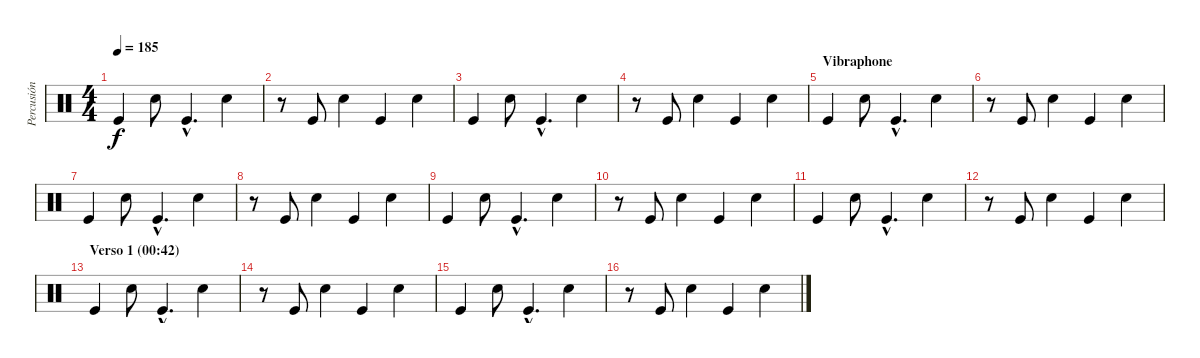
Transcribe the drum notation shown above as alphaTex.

\track ("Percusión" "Percusión") {instrument percussion}
\staff {score}
\articulation defaults
\ts (4 4)
\tempo 185
\clef neutral
\ks c "Kick (hit)".4{dy f} "Electric Snare (hit)".8 "Kick (hit)"{hac}.4{d} "Electric Snare (hit)".4
|
r.8 "Kick (hit)".8 "Electric Snare (hit)".4 "Kick (hit)".4 "Electric Snare (hit)".4 |
"Kick (hit)".4 "Electric Snare (hit)".8 "Kick (hit)"{hac}.4{d} "Electric Snare (hit)".4 |
r.8 "Kick (hit)".8 "Electric Snare (hit)".4 "Kick (hit)".4 "Electric Snare (hit)".4 |
\section ("" "Vibraphone")
"Kick (hit)".4 "Electric Snare (hit)".8 "Kick (hit)"{hac}.4{d} "Electric Snare (hit)".4 |
r.8 "Kick (hit)".8 "Electric Snare (hit)".4 "Kick (hit)".4 "Electric Snare (hit)".4 |
"Kick (hit)".4 "Electric Snare (hit)".8 "Kick (hit)"{hac}.4{d} "Electric Snare (hit)".4 |
r.8 "Kick (hit)".8 "Electric Snare (hit)".4 "Kick (hit)".4 "Electric Snare (hit)".4 |
"Kick (hit)".4 "Electric Snare (hit)".8 "Kick (hit)"{hac}.4{d} "Electric Snare (hit)".4 |
r.8 "Kick (hit)".8 "Electric Snare (hit)".4 "Kick (hit)".4 "Electric Snare (hit)".4 |
"Kick (hit)".4 "Electric Snare (hit)".8 "Kick (hit)"{hac}.4{d} "Electric Snare (hit)".4 |
r.8 "Kick (hit)".8 "Electric Snare (hit)".4 "Kick (hit)".4 "Electric Snare (hit)".4 |
\section ("" "Verso 1 (00:42)")
"Kick (hit)".4 "Electric Snare (hit)".8 "Kick (hit)"{hac}.4{d} "Electric Snare (hit)".4 |
r.8 "Kick (hit)".8 "Electric Snare (hit)".4 "Kick (hit)".4 "Electric Snare (hit)".4 |
"Kick (hit)".4 "Electric Snare (hit)".8 "Kick (hit)"{hac}.4{d} "Electric Snare (hit)".4 |
r.8 "Kick (hit)".8 "Electric Snare (hit)".4 "Kick (hit)".4 "Electric Snare (hit)".4
